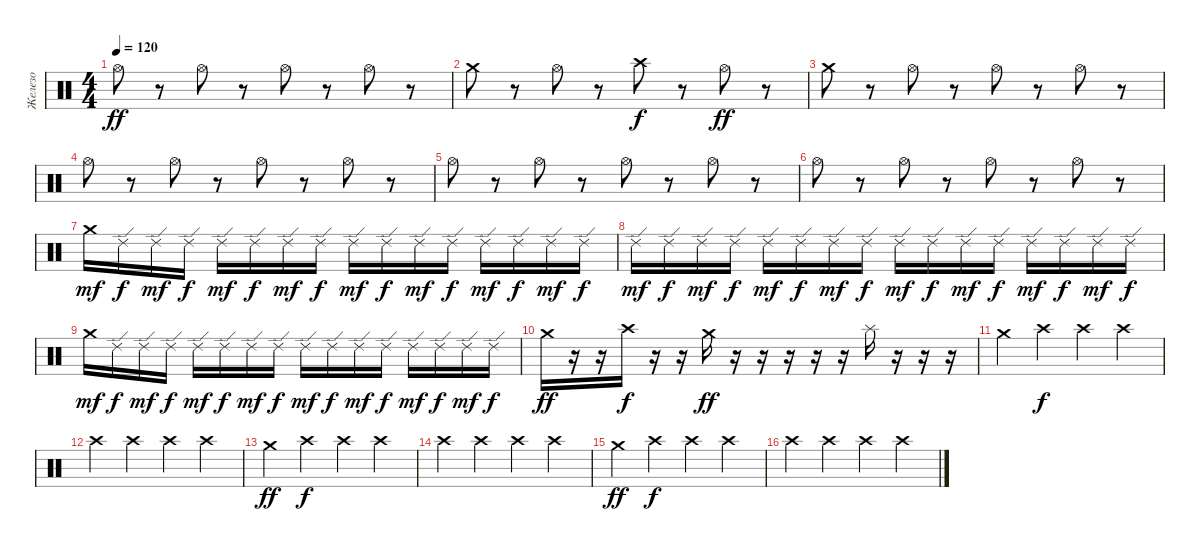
\track ("Железо" "Железо") {instrument percussion}
\staff {score}
\articulation defaults
\ts (4 4)
\tempo 120
\clef neutral
\ks c "Hi-Hat (open)".8{dy ff}
r.8 "Hi-Hat (open)".8 r.8 "Hi-Hat (open)".8 r.8 "Hi-Hat (open)".8 r.8 |
"Crash medium (hit)".8 r.8 "Hi-Hat (open)".8 r.8 "Crash high (hit)".8{dy f} r.8 "Hi-Hat (open)".8{dy ff} r.8 |
"Crash medium (hit)".8 r.8 "Hi-Hat (open)".8 r.8 "Hi-Hat (open)".8 r.8 "Hi-Hat (open)".8 r.8 |
"Hi-Hat (open)".8 r.8 "Hi-Hat (open)".8 r.8 "Hi-Hat (open)".8 r.8 "Hi-Hat (open)".8 r.8 |
"Hi-Hat (open)".8 r.8 "Hi-Hat (open)".8 r.8 "Hi-Hat (open)".8 r.8 "Hi-Hat (open)".8 r.8 |
"Hi-Hat (open)".8 r.8 "Hi-Hat (open)".8 r.8 "Hi-Hat (open)".8 r.8 "Hi-Hat (open)".8 r.8 |
"Crash medium (hit)".16{dy mf} "Ride (edge) 2".16{dy f} "Ride (edge) 2".16{dy mf} "Ride (edge) 2".16{dy f} "Ride (edge) 2".16{dy mf} "Ride (edge) 2".16{dy f} "Ride (edge) 2".16{dy mf} "Ride (edge) 2".16{dy f} "Ride (edge) 2".16{dy mf} "Ride (edge) 2".16{dy f} "Ride (edge) 2".16{dy mf} "Ride (edge) 2".16{dy f} "Ride (edge) 2".16{dy mf} "Ride (edge) 2".16{dy f} "Ride (edge) 2".16{dy mf} "Ride (edge) 2".16{dy f} |
"Ride (edge) 2".16{dy mf} "Ride (edge) 2".16{dy f} "Ride (edge) 2".16{dy mf} "Ride (edge) 2".16{dy f} "Ride (edge) 2".16{dy mf} "Ride (edge) 2".16{dy f} "Ride (edge) 2".16{dy mf} "Ride (edge) 2".16{dy f} "Ride (edge) 2".16{dy mf} "Ride (edge) 2".16{dy f} "Ride (edge) 2".16{dy mf} "Ride (edge) 2".16{dy f} "Ride (edge) 2".16{dy mf} "Ride (edge) 2".16{dy f} "Ride (edge) 2".16{dy mf} "Ride (edge) 2".16{dy f} |
"Crash medium (hit)".16{dy mf} "Ride (edge) 2".16{dy f} "Ride (edge) 2".16{dy mf} "Ride (edge) 2".16{dy f} "Ride (edge) 2".16{dy mf} "Ride (edge) 2".16{dy f} "Ride (edge) 2".16{dy mf} "Ride (edge) 2".16{dy f} "Ride (edge) 2".16{dy mf} "Ride (edge) 2".16{dy f} "Ride (edge) 2".16{dy mf} "Ride (edge) 2".16{dy f} "Ride (edge) 2".16{dy mf} "Ride (edge) 2".16{dy f} "Ride (edge) 2".16{dy mf} "Ride (edge) 2".16{dy f} |
"Crash medium (hit)".16{dy ff} r.16 r.16 "Crash high (hit)".16{dy f} r.16 r.16 "Crash medium (hit)".16{dy ff} r.16 r.16 r.16 r.16 r.16 "Splash (hit)".16 r.16 r.16 r.16 |
"Crash medium (hit)".4 "Crash high (hit)".4{dy f} "Crash high (hit)".4 "Crash high (hit)".4 |
"Crash high (hit)".4 "Crash high (hit)".4 "Crash high (hit)".4 "Crash high (hit)".4 |
"Crash medium (hit)".4{dy ff} "Crash high (hit)".4{dy f} "Crash high (hit)".4 "Crash high (hit)".4 |
"Crash high (hit)".4 "Crash high (hit)".4 "Crash high (hit)".4 "Crash high (hit)".4 |
"Crash medium (hit)".4{dy ff} "Crash high (hit)".4{dy f} "Crash high (hit)".4 "Crash high (hit)".4 |
"Crash high (hit)".4 "Crash high (hit)".4 "Crash high (hit)".4 "Crash high (hit)".4
